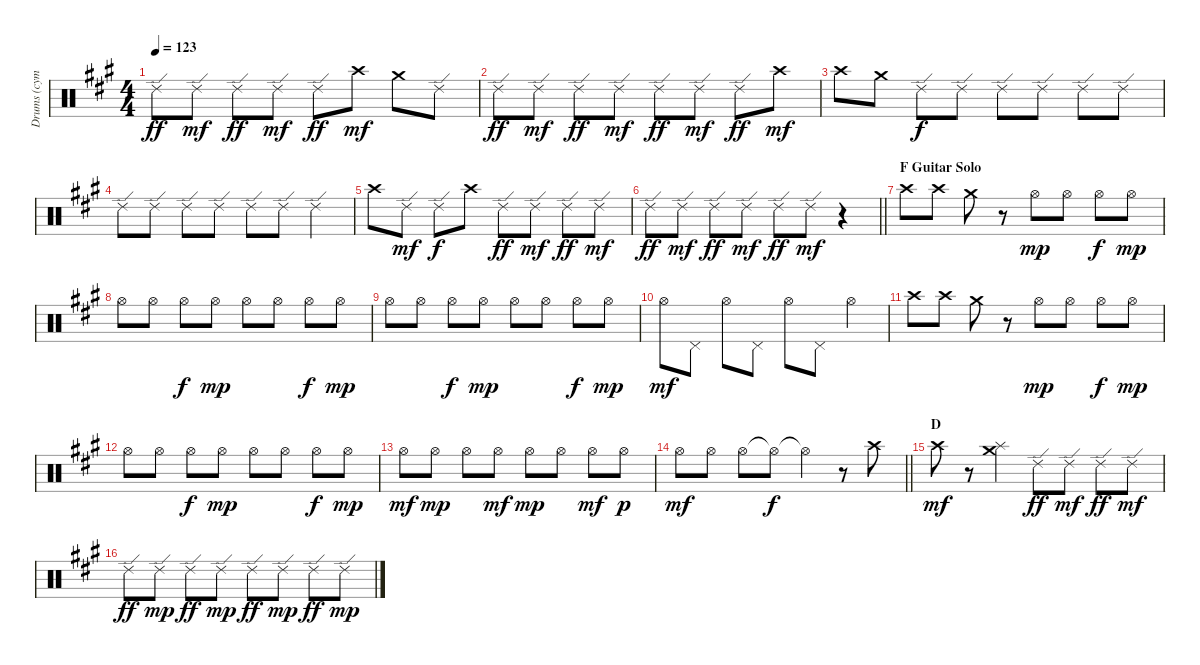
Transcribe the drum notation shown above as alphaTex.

\track ("Drums (cymbals)" "Drums (cym") {instrument percussion}
\staff {score}
\articulation defaults
\ts (4 4)
\tempo 123
\clef neutral
\ks a "Ride (edge) 2".8{dy ff} "Ride (edge) 2".8{dy mf} "Ride (edge) 2".8{dy ff} "Ride (edge) 2".8{dy mf} "Ride (edge) 2".8{dy ff} "Crash high (hit)".8{dy mf} "Crash medium (hit)".8 "Ride (edge) 2".8
|
"Ride (edge) 2".8{dy ff} "Ride (edge) 2".8{dy mf} "Ride (edge) 2".8{dy ff} "Ride (edge) 2".8{dy mf} "Ride (edge) 2".8{dy ff} "Ride (edge) 2".8{dy mf} "Ride (edge) 2".8{dy ff} "Crash high (hit)".8{dy mf} |
"Crash high (hit)".8 "Crash medium (hit)".8 "Ride (edge) 2".8{dy f} "Ride (edge) 2".8 "Ride (edge) 2".8 "Ride (edge) 2".8 "Ride (edge) 2".8 "Ride (edge) 2".8 |
"Ride (edge) 2".8 "Ride (edge) 2".8 "Ride (edge) 2".8 "Ride (edge) 2".8 "Ride (edge) 2".8 "Ride (edge) 2".8 "Ride (edge) 2".4 |
"Crash high (hit)".8 "Ride (edge) 2".8{dy mf} "Ride (edge) 2".8{dy f} "Crash high (hit)".8 "Ride (edge) 2".8{dy ff} "Ride (edge) 2".8{dy mf} "Ride (edge) 2".8{dy ff} "Ride (edge) 2".8{dy mf} |
\barLineRight lightlight "Ride (edge) 2".8{dy ff} "Ride (edge) 2".8{dy mf} "Ride (edge) 2".8{dy ff} "Ride (edge) 2".8{dy mf} "Ride (edge) 2".8{dy ff} "Ride (edge) 2".8{dy mf}
r.4 |
\section ("" "F Guitar Solo")
"Crash high (hit)".8 "Crash high (hit)".8 "Crash medium (hit)".8 r.8 "Hi-Hat (open)".8{dy mp} "Hi-Hat (open)".8 "Hi-Hat (open)".8{dy f} "Hi-Hat (open)".8{dy mp} |
"Hi-Hat (open)".8 "Hi-Hat (open)".8 "Hi-Hat (open)".8{dy f} "Hi-Hat (open)".8{dy mp} "Hi-Hat (open)".8 "Hi-Hat (open)".8 "Hi-Hat (open)".8{dy f} "Hi-Hat (open)".8{dy mp} |
"Hi-Hat (open)".8 "Hi-Hat (open)".8 "Hi-Hat (open)".8{dy f} "Hi-Hat (open)".8{dy mp} "Hi-Hat (open)".8 "Hi-Hat (open)".8 "Hi-Hat (open)".8{dy f} "Hi-Hat (open)".8{dy mp} |
"Hi-Hat (open)".8{dy mf} "Pedal Hi-Hat (hit)".8 "Hi-Hat (open)".8 "Pedal Hi-Hat (hit)".8 "Hi-Hat (open)".8 "Pedal Hi-Hat (hit)".8 "Hi-Hat (open)".4 |
"Crash high (hit)".8 "Crash high (hit)".8 "Crash medium (hit)".8 r.8 "Hi-Hat (open)".8{dy mp} "Hi-Hat (open)".8 "Hi-Hat (open)".8{dy f} "Hi-Hat (open)".8{dy mp} |
"Hi-Hat (open)".8 "Hi-Hat (open)".8 "Hi-Hat (open)".8{dy f} "Hi-Hat (open)".8{dy mp} "Hi-Hat (open)".8 "Hi-Hat (open)".8 "Hi-Hat (open)".8{dy f} "Hi-Hat (open)".8{dy mp} |
"Hi-Hat (open)".8{dy mf} "Hi-Hat (open)".8{dy mp} "Hi-Hat (open)".8 "Hi-Hat (open)".8{dy mf} "Hi-Hat (open)".8{dy mp} "Hi-Hat (open)".8 "Hi-Hat (open)".8{dy mf} "Hi-Hat (open)".8{dy p} |
\barLineRight lightlight "Hi-Hat (open)".8{dy mf} "Hi-Hat (open)".8 "Hi-Hat (open)".8 "Hi-Hat (open)"{t}.8{dy f} "Hi-Hat (open)"{t}.4
r.8 "Crash high (hit)".8 |
\section ("" "D")
"Crash high (hit)".8{dy mf} r.8 ("Splash (hit)" "Crash medium (hit)").4 "Ride (edge) 2".8{dy ff} "Ride (edge) 2".8{dy mf} "Ride (edge) 2".8{dy ff} "Ride (edge) 2".8{dy mf} |
"Ride (edge) 2".8{dy ff} "Ride (edge) 2".8{dy mp} "Ride (edge) 2".8{dy ff} "Ride (edge) 2".8{dy mp} "Ride (edge) 2".8{dy ff} "Ride (edge) 2".8{dy mp} "Ride (edge) 2".8{dy ff} "Ride (edge) 2".8{dy mp}
